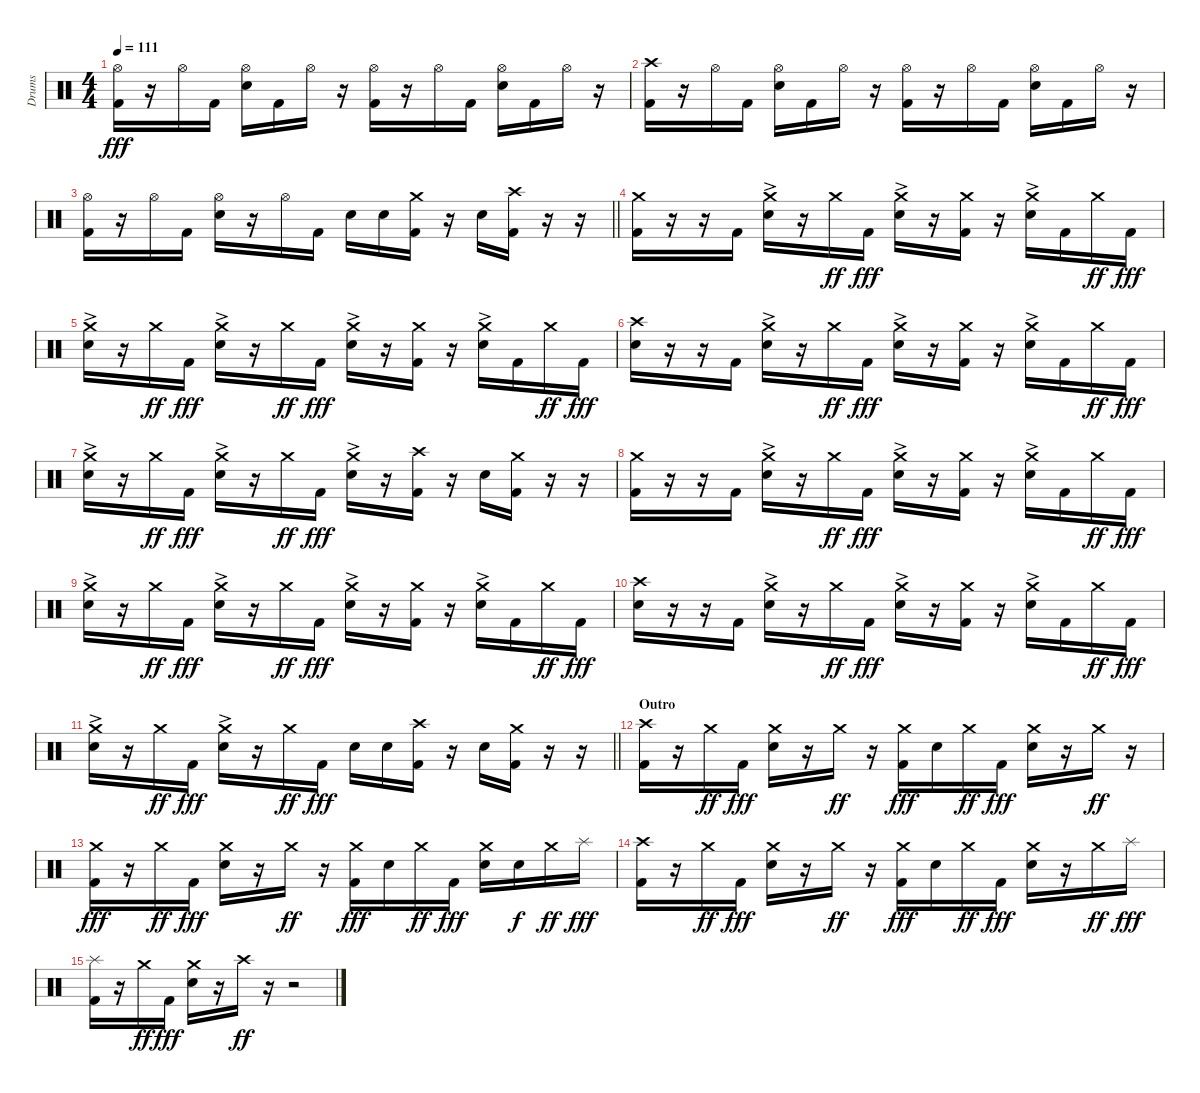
\track ("Drums" "Drums") {instrument percussion}
\staff {score}
\articulation defaults
\ts (4 4)
\tempo 111
\clef neutral
\ks c
("Hi-Hat (open)" "Kick (hit) 2").16{dy fff} r.16 "Hi-Hat (open)".16 "Kick (hit) 2".16 ("Hi-Hat (open)" "Electric Snare (hit)").16 "Kick (hit) 2".16 "Hi-Hat (open)".16 r.16 ("Hi-Hat (open)" "Kick (hit) 2").16 r.16 "Hi-Hat (open)".16 "Kick (hit) 2".16 ("Hi-Hat (open)" "Electric Snare (hit)").16 "Kick (hit) 2".16 "Hi-Hat (open)".16 r.16 |
("Crash high (hit)" "Kick (hit) 2").16 r.16 "Hi-Hat (open)".16 "Kick (hit) 2".16 ("Hi-Hat (open)" "Electric Snare (hit)").16 "Kick (hit) 2".16 "Hi-Hat (open)".16 r.16 ("Hi-Hat (open)" "Kick (hit) 2").16 r.16 "Hi-Hat (open)".16 "Kick (hit) 2".16 ("Hi-Hat (open)" "Electric Snare (hit)").16 "Kick (hit) 2".16 "Hi-Hat (open)".16 r.16 |
\barLineRight lightlight
("Hi-Hat (open)" "Kick (hit) 2").16 r.16 "Hi-Hat (open)".16 "Kick (hit) 2".16 ("Hi-Hat (open)" "Electric Snare (hit)").16 r.16 "Hi-Hat (open)".16 "Kick (hit) 2".16 "Electric Snare (hit)".16 "Electric Snare (hit)".16 ("Crash medium (hit)" "Kick (hit) 2").16 r.16 "Electric Snare (hit)".16 ("Crash high (hit)" "Kick (hit) 2").16 r.16 r.16 |
("Crash medium (hit)" "Kick (hit) 2").16 r.16 r.16 "Kick (hit) 2".16 ("Crash medium (hit)"{ac} "Electric Snare (hit)").16 r.16 "Crash medium (hit)".16{dy ff} "Kick (hit) 2".16{dy fff} ("Crash medium (hit)"{ac} "Electric Snare (hit)").16 r.16 ("Crash medium (hit)" "Kick (hit) 2").16 r.16 ("Crash medium (hit)"{ac} "Electric Snare (hit)").16 "Kick (hit) 2".16 "Crash medium (hit)".16{dy ff} "Kick (hit) 2".16{dy fff} |
("Crash medium (hit)"{ac} "Electric Snare (hit)").16 r.16 "Crash medium (hit)".16{dy ff} "Kick (hit) 2".16{dy fff} ("Crash medium (hit)"{ac} "Electric Snare (hit)").16 r.16 "Crash medium (hit)".16{dy ff} "Kick (hit) 2".16{dy fff} ("Crash medium (hit)"{ac} "Electric Snare (hit)").16 r.16 ("Crash medium (hit)" "Kick (hit) 2").16 r.16 ("Crash medium (hit)"{ac} "Electric Snare (hit)").16 "Kick (hit) 2".16 "Crash medium (hit)".16{dy ff} "Kick (hit) 2".16{dy fff} |
("Crash high (hit)" "Electric Snare (hit)").16 r.16 r.16 "Kick (hit) 2".16 ("Crash medium (hit)"{ac} "Electric Snare (hit)").16 r.16 "Crash medium (hit)".16{dy ff} "Kick (hit) 2".16{dy fff} ("Crash medium (hit)"{ac} "Electric Snare (hit)").16 r.16 ("Crash medium (hit)" "Kick (hit) 2").16 r.16 ("Crash medium (hit)"{ac} "Electric Snare (hit)").16 "Kick (hit) 2".16 "Crash medium (hit)".16{dy ff} "Kick (hit) 2".16{dy fff} |
("Crash medium (hit)"{ac} "Electric Snare (hit)").16 r.16 "Crash medium (hit)".16{dy ff} "Kick (hit) 2".16{dy fff} ("Crash medium (hit)"{ac} "Electric Snare (hit)").16 r.16 "Crash medium (hit)".16{dy ff} "Kick (hit) 2".16{dy fff} ("Crash medium (hit)"{ac} "Electric Snare (hit)").16 r.16 ("Crash high (hit)" "Kick (hit) 2").16 r.16 "Electric Snare (hit)".16 ("Crash medium (hit)" "Kick (hit) 2").16 r.16 r.16 |
("Crash medium (hit)" "Kick (hit) 2").16 r.16 r.16 "Kick (hit) 2".16 ("Crash medium (hit)"{ac} "Electric Snare (hit)").16 r.16 "Crash medium (hit)".16{dy ff} "Kick (hit) 2".16{dy fff} ("Crash medium (hit)"{ac} "Electric Snare (hit)").16 r.16 ("Crash medium (hit)" "Kick (hit) 2").16 r.16 ("Crash medium (hit)"{ac} "Electric Snare (hit)").16 "Kick (hit) 2".16 "Crash medium (hit)".16{dy ff} "Kick (hit) 2".16{dy fff} |
("Crash medium (hit)"{ac} "Electric Snare (hit)").16 r.16 "Crash medium (hit)".16{dy ff} "Kick (hit) 2".16{dy fff} ("Crash medium (hit)"{ac} "Electric Snare (hit)").16 r.16 "Crash medium (hit)".16{dy ff} "Kick (hit) 2".16{dy fff} ("Crash medium (hit)"{ac} "Electric Snare (hit)").16 r.16 ("Crash medium (hit)" "Kick (hit) 2").16 r.16 ("Crash medium (hit)"{ac} "Electric Snare (hit)").16 "Kick (hit) 2".16 "Crash medium (hit)".16{dy ff} "Kick (hit) 2".16{dy fff} |
("Crash high (hit)" "Electric Snare (hit)").16 r.16 r.16 "Kick (hit) 2".16 ("Crash medium (hit)"{ac} "Electric Snare (hit)").16 r.16 "Crash medium (hit)".16{dy ff} "Kick (hit) 2".16{dy fff} ("Crash medium (hit)"{ac} "Electric Snare (hit)").16 r.16 ("Crash medium (hit)" "Kick (hit) 2").16 r.16 ("Crash medium (hit)"{ac} "Electric Snare (hit)").16 "Kick (hit) 2".16 "Crash medium (hit)".16{dy ff} "Kick (hit) 2".16{dy fff} |
\barLineRight lightlight
("Crash medium (hit)"{ac} "Electric Snare (hit)").16 r.16 "Crash medium (hit)".16{dy ff} "Kick (hit) 2".16{dy fff} ("Crash medium (hit)"{ac} "Electric Snare (hit)").16 r.16 "Crash medium (hit)".16{dy ff} "Kick (hit) 2".16{dy fff} "Electric Snare (hit)".16 "Electric Snare (hit)".16 ("Crash high (hit)" "Kick (hit) 2").16 r.16 "Electric Snare (hit)".16 ("Crash medium (hit)" "Kick (hit) 2").16 r.16 r.16 |
\section ("" "Outro")
("Crash high (hit)" "Kick (hit) 2").16 r.16 "Crash medium (hit)".16{dy ff} "Kick (hit) 2".16{dy fff} ("Crash medium (hit)" "Electric Snare (hit)").16 r.16 "Crash medium (hit)".16{dy ff} r.16 ("Crash medium (hit)" "Kick (hit) 2").16{dy fff} "Electric Snare (hit)".16 "Crash medium (hit)".16{dy ff} "Kick (hit) 2".16{dy fff} ("Crash medium (hit)" "Electric Snare (hit)").16 r.16 "Crash medium (hit)".16{dy ff} r.16 |
("Crash medium (hit)" "Kick (hit) 2").16{dy fff} r.16 "Crash medium (hit)".16{dy ff} "Kick (hit) 2".16{dy fff} ("Crash medium (hit)" "Electric Snare (hit)").16 r.16 "Crash medium (hit)".16{dy ff} r.16 ("Crash medium (hit)" "Kick (hit) 2").16{dy fff} "Electric Snare (hit)".16 "Crash medium (hit)".16{dy ff} "Kick (hit) 2".16{dy fff} ("Crash medium (hit)" "Electric Snare (hit)").16 "Electric Snare (hit)".16{dy f} "Crash medium (hit)".16{dy ff} "Splash (hit)".16{dy fff} |
("Crash high (hit)" "Kick (hit) 2").16 r.16 "Crash medium (hit)".16{dy ff} "Kick (hit) 2".16{dy fff} ("Crash medium (hit)" "Electric Snare (hit)").16 r.16 "Crash medium (hit)".16{dy ff} r.16 ("Crash medium (hit)" "Kick (hit) 2").16{dy fff} "Electric Snare (hit)".16 "Crash medium (hit)".16{dy ff} "Kick (hit) 2".16{dy fff} ("Crash medium (hit)" "Electric Snare (hit)").16 r.16 "Crash medium (hit)".16{dy ff} "Splash (hit)".16{dy fff} |
("Splash (hit)" "Kick (hit) 2").16 r.16 "Crash medium (hit)".16{dy ff} "Kick (hit) 2".16{dy fff} ("Crash medium (hit)" "Electric Snare (hit)").16 r.16 "Crash high (hit)".16{dy ff} r.16 r.2
